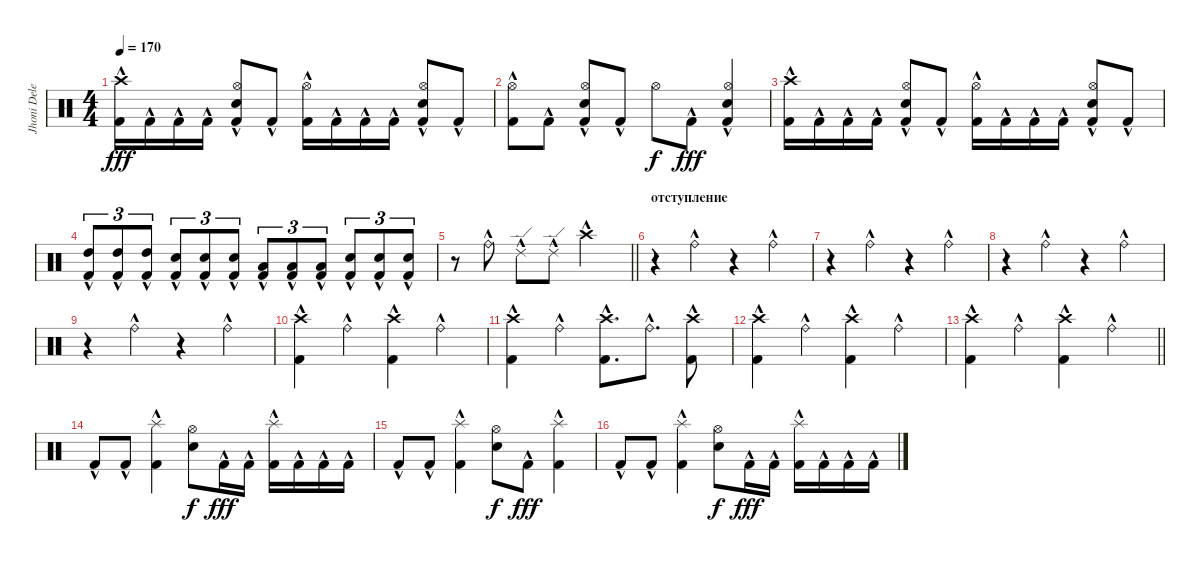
\track ("Jhoni Delenger" "Jhoni Dele") {instrument percussion}
\staff {score}
\articulation defaults
\ts (4 4)
\tempo 170
\clef neutral
\ks c
("Crash high (hit)" "Kick (hit) 2"{hac}).16{dy fff} "Kick (hit) 2"{hac}.16 "Kick (hit) 2"{hac}.16 "Kick (hit) 2"{hac}.16 ("Hi-Hat (open)" "Snare (hit) 2" "Kick (hit) 2"{hac}).8 "Kick (hit) 2"{hac}.8 ("Hi-Hat (open)" "Kick (hit) 2"{hac}).16 "Kick (hit) 2"{hac}.16 "Kick (hit) 2"{hac}.16 "Kick (hit) 2"{hac}.16 ("Hi-Hat (open)" "Snare (hit) 2" "Kick (hit) 2"{hac}).8 "Kick (hit) 2"{hac}.8 |
("Hi-Hat (open)" "Kick (hit) 2"{hac}).8 "Kick (hit) 2"{hac}.8 ("Hi-Hat (open)" "Snare (hit) 2" "Kick (hit) 2"{hac}).8 "Kick (hit) 2"{hac}.8 "Hi-Hat (open)".8{dy f} "Kick (hit) 2"{hac}.8{dy fff} ("Hi-Hat (open)" "Snare (hit) 2" "Kick (hit) 2"{hac}).4 |
("Crash high (hit)" "Kick (hit) 2"{hac}).16 "Kick (hit) 2"{hac}.16 "Kick (hit) 2"{hac}.16 "Kick (hit) 2"{hac}.16 ("Hi-Hat (open)" "Snare (hit) 2" "Kick (hit) 2"{hac}).8 "Kick (hit) 2"{hac}.8 ("Hi-Hat (open)" "Kick (hit) 2"{hac}).16 "Kick (hit) 2"{hac}.16 "Kick (hit) 2"{hac}.16 "Kick (hit) 2"{hac}.16 ("Hi-Hat (open)" "Snare (hit) 2" "Kick (hit) 2"{hac}).8 "Kick (hit) 2"{hac}.8 |
("Kick (hit) 2"{hac} "High Tom (hit)"{hac}).8{tu (3 2)} ("Kick (hit) 2"{hac} "High Tom (hit)"{hac}).8{tu (3 2)} ("Kick (hit) 2"{hac} "High Tom (hit)"{hac}).8{tu (3 2)} ("Kick (hit) 2"{hac} "Snare (hit) 2").8{tu (3 2)} ("Kick (hit) 2"{hac} "Snare (hit) 2").8{tu (3 2)} ("Kick (hit) 2"{hac} "Snare (hit) 2").8{tu (3 2)} ("Kick (hit) 2"{hac} "Low Tom (hit)"{hac}).8{tu (3 2)} ("Kick (hit) 2"{hac} "Low Tom (hit)"{hac}).8{tu (3 2)} ("Kick (hit) 2"{hac} "Low Tom (hit)"{hac}).8{tu (3 2)} ("Kick (hit) 2"{hac} "Snare (hit) 2").8{tu (3 2)} ("Kick (hit) 2"{hac} "Snare (hit) 2").8{tu (3 2)} ("Kick (hit) 2"{hac} "Snare (hit) 2").8{tu (3 2)} |
\barLineRight lightlight
r.8 "Ride (bell)"{hac}.8 "Ride (edge) 2"{hac}.8 "Ride (edge) 2"{hac}.8 "Crash high (hit)"{hac}.2 |
\section ("" "отступление")
r.4 "Ride (bell)"{hac}.4 r.4 "Ride (bell)"{hac}.4 |
r.4 "Ride (bell)"{hac}.4 r.4 "Ride (bell)"{hac}.4 |
r.4 "Ride (bell)"{hac}.4 r.4 "Ride (bell)"{hac}.4 |
r.4 "Ride (bell)"{hac}.4 r.4 "Ride (bell)"{hac}.4 |
("Crash high (hit)" "Kick (hit) 2"{hac}).4 "Ride (bell)"{hac}.4 ("Crash high (hit)" "Kick (hit) 2"{hac}).4 "Ride (bell)"{hac}.4 |
("Crash high (hit)" "Kick (hit) 2"{hac}).4 "Ride (bell)"{hac}.4 ("Crash high (hit)" "Kick (hit) 2"{hac}).8{d} "Ride (bell)"{hac}.8{d} ("Crash high (hit)" "Kick (hit) 2"{hac}).8 |
("Crash high (hit)" "Kick (hit) 2"{hac}).4 "Ride (bell)"{hac}.4 ("Crash high (hit)" "Kick (hit) 2"{hac}).4 "Ride (bell)"{hac}.4 |
\barLineRight lightlight
("Crash high (hit)" "Kick (hit) 2"{hac}).4 "Ride (bell)"{hac}.4 ("Crash high (hit)" "Kick (hit) 2"{hac}).4 "Ride (bell)"{hac}.4 |
"Kick (hit) 2"{hac}.8 "Kick (hit) 2"{hac}.8 ("Kick (hit) 2"{hac} "Splash (hit)"{hac}).4 ("Hi-Hat (open)" "Snare (hit) 2").8{dy f} "Kick (hit) 2"{hac}.16{dy fff} "Kick (hit) 2"{hac}.16 ("Kick (hit) 2"{hac} "Splash (hit)"{hac}).16 "Kick (hit) 2"{hac}.16 "Kick (hit) 2"{hac}.16 "Kick (hit) 2"{hac}.16 |
"Kick (hit) 2"{hac}.8 "Kick (hit) 2"{hac}.8 ("Kick (hit) 2"{hac} "Splash (hit)"{hac}).4 ("Hi-Hat (open)" "Snare (hit) 2").8{dy f} "Kick (hit) 2"{hac}.8{dy fff} ("Kick (hit) 2"{hac} "Splash (hit)"{hac}).4 |
"Kick (hit) 2"{hac}.8 "Kick (hit) 2"{hac}.8 ("Kick (hit) 2"{hac} "Splash (hit)"{hac}).4 ("Hi-Hat (open)" "Snare (hit) 2").8{dy f} "Kick (hit) 2"{hac}.16{dy fff} "Kick (hit) 2"{hac}.16 ("Kick (hit) 2"{hac} "Splash (hit)"{hac}).16 "Kick (hit) 2"{hac}.16 "Kick (hit) 2"{hac}.16 "Kick (hit) 2"{hac}.16
